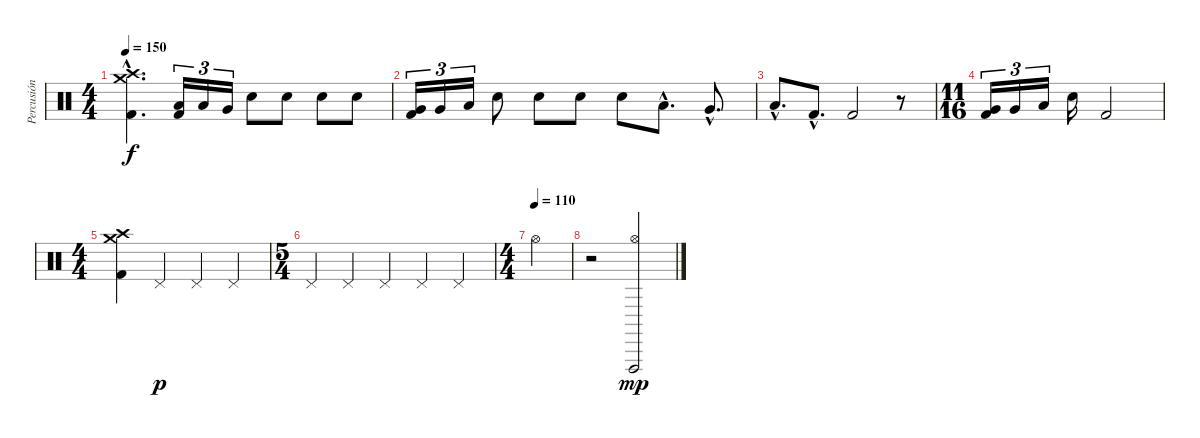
\track ("Percusión" "Percusión") {instrument percussion}
\staff {score}
\articulation defaults
\ts (4 4)
\tempo 150
\clef neutral
\ks c
("Crash medium (hit)"{hac} "Crash high (hit)"{hac} "Kick (hit) 2"{hac}).4{d dy f} ("Low Tom (hit)" "Kick (hit) 2").16{tu (3 2)} "Low Tom (hit)".16{tu (3 2)} "Very Low Tom (hit)".16{tu (3 2)} "Electric Snare (hit)".8 "Electric Snare (hit)".8 "Electric Snare (hit)".8 "Electric Snare (hit)".8 |
("Very Low Tom (hit)" "Kick (hit) 2").16{tu (3 2)} "Very Low Tom (hit)".16{tu (3 2)} "Low Floor Tom (hit)".16{tu (3 2)} "Electric Snare (hit)".8 "Electric Snare (hit)".8 "Electric Snare (hit)".8 "Electric Snare (hit)".8 "Low Tom (hit)"{hac}.8{d} "Very Low Tom (hit)"{hac}.8{d} |
"Low Floor Tom (hit)"{hac}.8{d} "Kick (hit) 2"{hac}.8{d} "Kick (hit) 2".2 r.8 |
\ts (11 16)
("Very Low Tom (hit)" "Kick (hit) 2").16{tu (3 2)} "Very Low Tom (hit)".16{tu (3 2)} "Low Floor Tom (hit)".16{tu (3 2)} "Electric Snare (hit)".16 "Kick (hit) 2".2 |
\ts (4 4)
("Crash medium (hit)" "Crash high (hit)" "Kick (hit) 2").4 "Pedal Hi-Hat (hit)".4{dy p} "Pedal Hi-Hat (hit)".4 "Pedal Hi-Hat (hit)".4 |
\ts (5 4)
"Pedal Hi-Hat (hit)".4 "Pedal Hi-Hat (hit)".4 "Pedal Hi-Hat (hit)".4 "Pedal Hi-Hat (hit)".4 "Pedal Hi-Hat (hit)".4 |
\ts (4 4)
\tempo (110)
"Hi-Hat (open)".4 |
r.2 ("Hi-Hat (open)" "Vibraslap (hit)").2{dy mp}
